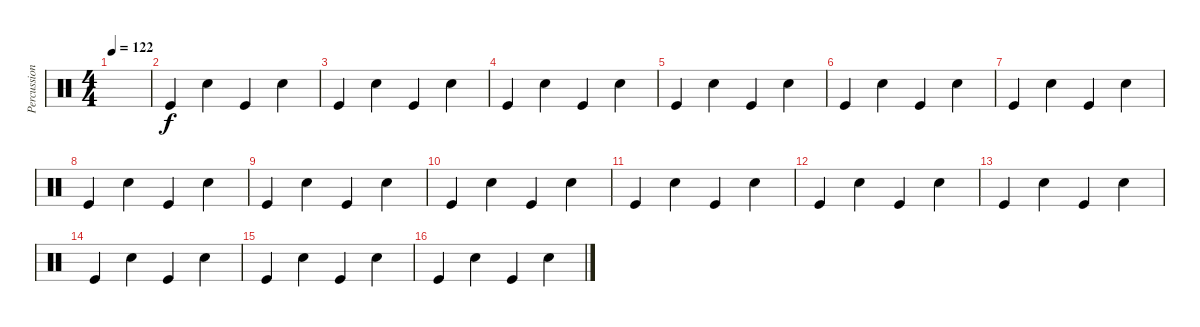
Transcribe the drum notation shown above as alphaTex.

\track ("Percussion" "Percussion") {instrument percussion}
\staff {score}
\articulation defaults
\ts (4 4)
\tempo 122
\clef neutral
\ks c
|
"Kick (hit)".4 "Snare (hit) 2".4 "Kick (hit)".4 "Snare (hit) 2".4 |
"Kick (hit)".4 "Snare (hit) 2".4 "Kick (hit)".4 "Snare (hit) 2".4 |
"Kick (hit)".4 "Snare (hit) 2".4 "Kick (hit)".4 "Snare (hit) 2".4 |
"Kick (hit)".4 "Snare (hit) 2".4 "Kick (hit)".4 "Snare (hit) 2".4 |
"Kick (hit)".4 "Snare (hit) 2".4 "Kick (hit)".4 "Snare (hit) 2".4 |
"Kick (hit)".4 "Snare (hit) 2".4 "Kick (hit)".4 "Snare (hit) 2".4 |
"Kick (hit)".4 "Snare (hit) 2".4 "Kick (hit)".4 "Snare (hit) 2".4 |
"Kick (hit)".4 "Snare (hit) 2".4 "Kick (hit)".4 "Snare (hit) 2".4 |
"Kick (hit)".4 "Snare (hit) 2".4 "Kick (hit)".4 "Snare (hit) 2".4 |
"Kick (hit)".4 "Snare (hit) 2".4 "Kick (hit)".4 "Snare (hit) 2".4 |
"Kick (hit)".4 "Snare (hit) 2".4 "Kick (hit)".4 "Snare (hit) 2".4 |
"Kick (hit)".4 "Snare (hit) 2".4 "Kick (hit)".4 "Snare (hit) 2".4 |
"Kick (hit)".4 "Snare (hit) 2".4 "Kick (hit)".4 "Snare (hit) 2".4 |
"Kick (hit)".4 "Snare (hit) 2".4 "Kick (hit)".4 "Snare (hit) 2".4 |
"Kick (hit)".4 "Snare (hit) 2".4 "Kick (hit)".4 "Snare (hit) 2".4
